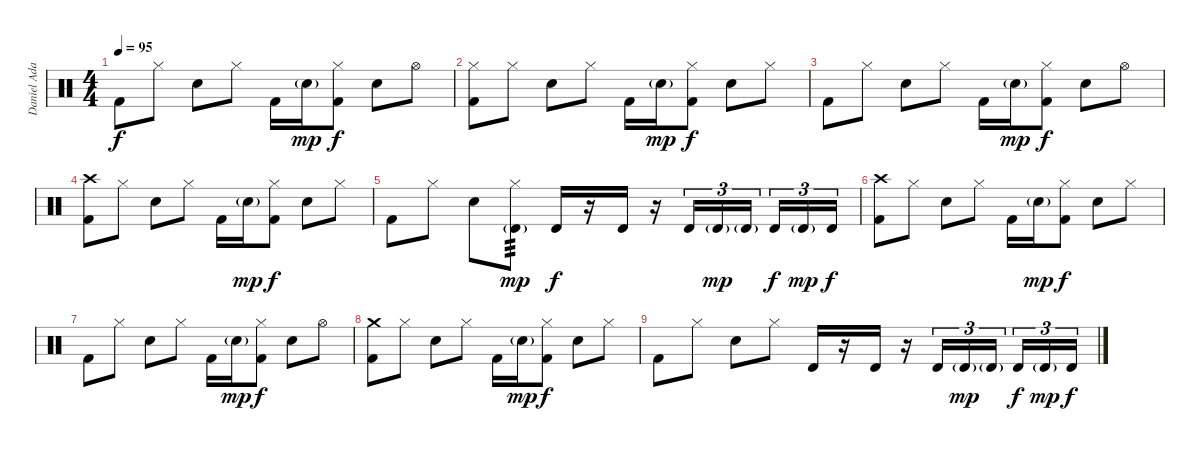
\track ("Daniel Adair" "Daniel Ada") {instrument percussion}
\staff {score}
\articulation defaults
\ts (4 4)
\tempo 95
\clef neutral
\ks c "Kick (hit) 2".8{dy f} "Hi-Hat (closed)".8 "Electric Snare (hit)".8 "Hi-Hat (closed)".8 "Kick (hit) 2".16 "Electric Snare (hit)"{g}.16{dy mp}
("Hi-Hat (closed)" "Kick (hit) 2").8{dy f} "Electric Snare (hit)".8 "Hi-Hat (open)".8 |
("Hi-Hat (closed)" "Kick (hit) 2").8 "Hi-Hat (closed)".8 "Electric Snare (hit)".8 "Hi-Hat (closed)".8 "Kick (hit) 2".16 "Electric Snare (hit)"{g}.16{dy mp} ("Hi-Hat (closed)" "Kick (hit) 2").8{dy f} "Electric Snare (hit)".8 "Hi-Hat (closed)".8 |
"Kick (hit) 2".8 "Hi-Hat (closed)".8 "Electric Snare (hit)".8 "Hi-Hat (closed)".8 "Kick (hit) 2".16 "Electric Snare (hit)"{g}.16{dy mp} ("Hi-Hat (closed)" "Kick (hit) 2").8{dy f} "Electric Snare (hit)".8 "Hi-Hat (open)".8 |
("Crash high (hit)" "Kick (hit) 2").8 "Hi-Hat (closed)".8 "Electric Snare (hit)".8 "Hi-Hat (closed)".8 "Kick (hit) 2".16 "Electric Snare (hit)"{g}.16{dy mp} ("Hi-Hat (closed)" "Kick (hit) 2").8{dy f} "Electric Snare (hit)".8 "Hi-Hat (closed)".8 |
"Kick (hit) 2".8 "Hi-Hat (closed)".8 "Electric Snare (hit)".8 ("Timbale high (hit)"{g} "Hi-Hat (closed)").8{tp 3 dy mp} "Timbale high (hit)".16{dy f} r.16 "Timbale high (hit)".16 r.16 "Timbale high (hit)".16{tu (3 2)} "Timbale high (hit)"{g}.16{tu (3 2) dy mp} "Timbale high (hit)"{g}.16{tu (3 2) beam splitsecondary} "Timbale high (hit)".16{tu (3 2) dy f} "Timbale high (hit)"{g}.16{tu (3 2) dy mp} "Timbale high (hit)".16{tu (3 2) dy f} |
("Crash high (hit)" "Kick (hit) 2").8 "Hi-Hat (closed)".8 "Electric Snare (hit)".8 "Hi-Hat (closed)".8 "Kick (hit) 2".16 "Electric Snare (hit)"{g}.16{dy mp} ("Hi-Hat (closed)" "Kick (hit) 2").8{dy f} "Electric Snare (hit)".8 "Hi-Hat (closed)".8 |
"Kick (hit) 2".8 "Hi-Hat (closed)".8 "Electric Snare (hit)".8 "Hi-Hat (closed)".8 "Kick (hit) 2".16 "Electric Snare (hit)"{g}.16{dy mp} ("Hi-Hat (closed)" "Kick (hit) 2").8{dy f} "Electric Snare (hit)".8 "Hi-Hat (open)".8 |
("Crash medium (hit)" "Kick (hit) 2").8 "Hi-Hat (closed)".8 "Electric Snare (hit)".8 "Hi-Hat (closed)".8 "Kick (hit) 2".16 "Electric Snare (hit)"{g}.16{dy mp} ("Hi-Hat (closed)" "Kick (hit) 2").8{dy f} "Electric Snare (hit)".8 "Hi-Hat (closed)".8 |
"Kick (hit) 2".8 "Hi-Hat (closed)".8 "Electric Snare (hit)".8 "Hi-Hat (closed)".8 "Timbale high (hit)".16 r.16 "Timbale high (hit)".16 r.16 "Timbale high (hit)".16{tu (3 2)} "Timbale high (hit)"{g}.16{tu (3 2) dy mp} "Timbale high (hit)"{g}.16{tu (3 2) beam splitsecondary} "Timbale high (hit)".16{tu (3 2) dy f} "Timbale high (hit)"{g}.16{tu (3 2) dy mp} "Timbale high (hit)".16{tu (3 2) dy f}
